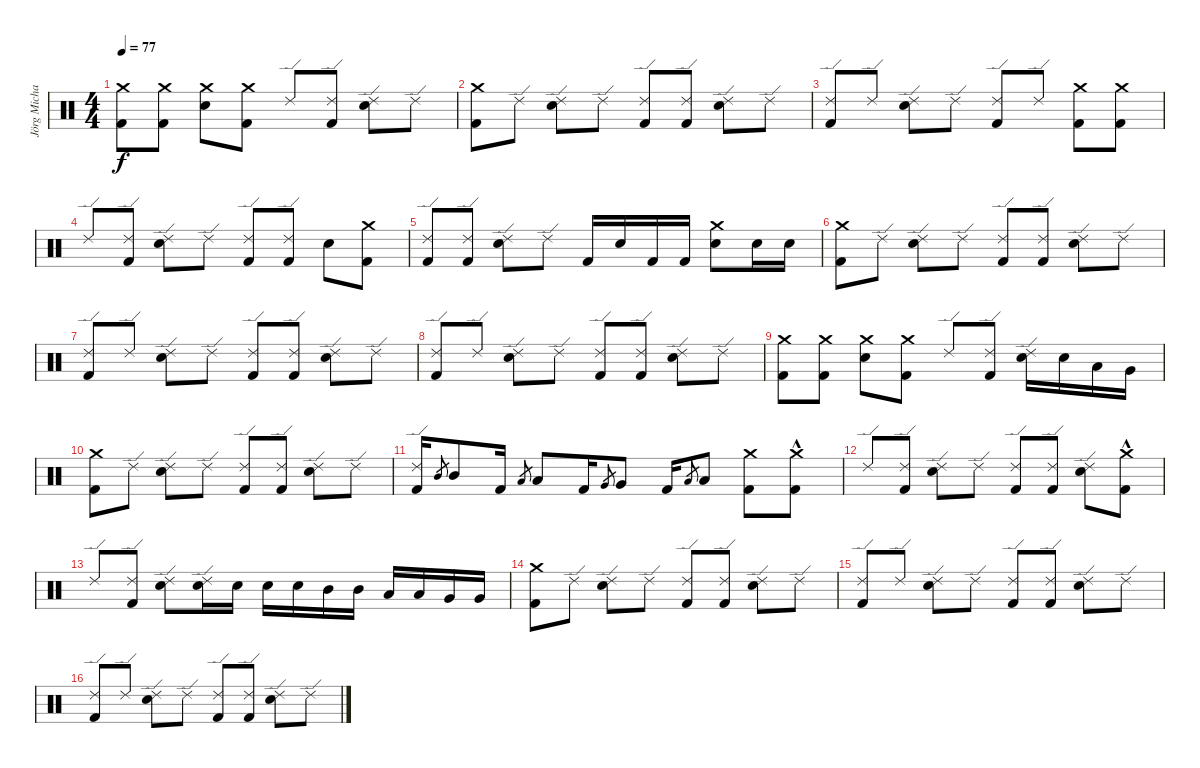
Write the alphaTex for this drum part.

\track ("Jörg Michael" "Jörg Micha") {instrument percussion}
\staff {score}
\articulation defaults
\ts (4 4)
\tempo 77
\clef neutral
\ks c
("Crash medium (hit)" "Kick (hit) 2").8{dy f} ("Crash medium (hit)" "Kick (hit) 2").8 ("Crash medium (hit)" "Electric Snare (hit)").8 ("Crash medium (hit)" "Kick (hit) 2").8 "Ride (edge) 2".8 ("Ride (edge) 2" "Kick (hit) 2").8 ("Ride (edge) 2" "Electric Snare (hit)").8 "Ride (edge) 2".8 |
("Crash medium (hit)" "Kick (hit) 2").8 "Ride (edge) 2".8 ("Ride (edge) 2" "Electric Snare (hit)").8 "Ride (edge) 2".8 ("Ride (edge) 2" "Kick (hit) 2").8 ("Ride (edge) 2" "Kick (hit) 2").8 ("Ride (edge) 2" "Electric Snare (hit)").8 "Ride (edge) 2".8 |
("Ride (edge) 2" "Kick (hit) 2").8 "Ride (edge) 2".8 ("Ride (edge) 2" "Electric Snare (hit)").8 "Ride (edge) 2".8 ("Ride (edge) 2" "Kick (hit) 2").8 "Ride (edge) 2".8 ("Crash medium (hit)" "Kick (hit) 2").8 ("Crash medium (hit)" "Kick (hit) 2").8 |
"Ride (edge) 2".8 ("Ride (edge) 2" "Kick (hit) 2").8 ("Ride (edge) 2" "Electric Snare (hit)").8 "Ride (edge) 2".8 ("Ride (edge) 2" "Kick (hit) 2").8 ("Ride (edge) 2" "Kick (hit) 2").8 "Electric Snare (hit)".8 ("Crash medium (hit)" "Kick (hit) 2").8 |
("Ride (edge) 2" "Kick (hit) 2").8 ("Ride (edge) 2" "Kick (hit) 2").8 ("Ride (edge) 2" "Electric Snare (hit)").8 "Ride (edge) 2".8 "Kick (hit) 2".16 "Electric Snare (hit)".16 "Kick (hit) 2".16 "Kick (hit) 2".16 ("Crash medium (hit)" "Electric Snare (hit)").8 "Electric Snare (hit)".16 "Electric Snare (hit)".16 |
("Crash medium (hit)" "Kick (hit) 2").8 "Ride (edge) 2".8 ("Ride (edge) 2" "Electric Snare (hit)").8 "Ride (edge) 2".8 ("Ride (edge) 2" "Kick (hit) 2").8 ("Ride (edge) 2" "Kick (hit) 2").8 ("Ride (edge) 2" "Electric Snare (hit)").8 "Ride (edge) 2".8 |
("Ride (edge) 2" "Kick (hit) 2").8 "Ride (edge) 2".8 ("Ride (edge) 2" "Electric Snare (hit)").8 "Ride (edge) 2".8 ("Ride (edge) 2" "Kick (hit) 2").8 ("Ride (edge) 2" "Kick (hit) 2").8 ("Ride (edge) 2" "Electric Snare (hit)").8 "Ride (edge) 2".8 |
("Ride (edge) 2" "Kick (hit) 2").8 "Ride (edge) 2".8 ("Ride (edge) 2" "Electric Snare (hit)").8 "Ride (edge) 2".8 ("Ride (edge) 2" "Kick (hit) 2").8 ("Ride (edge) 2" "Kick (hit) 2").8 ("Ride (edge) 2" "Electric Snare (hit)").8 "Ride (edge) 2".8 |
("Crash medium (hit)" "Kick (hit) 2").8 ("Crash medium (hit)" "Kick (hit) 2").8 ("Crash medium (hit)" "Electric Snare (hit)").8 ("Crash medium (hit)" "Kick (hit) 2").8 "Ride (edge) 2".8 ("Ride (edge) 2" "Kick (hit) 2").8 ("Ride (edge) 2" "Electric Snare (hit)").16 "Electric Snare (hit)".16 "Low Tom (hit)".16 "Very Low Tom (hit)".16 |
("Crash medium (hit)" "Kick (hit) 2").8 "Ride (edge) 2".8 ("Ride (edge) 2" "Electric Snare (hit)").8 "Ride (edge) 2".8 ("Ride (edge) 2" "Kick (hit) 2").8 ("Ride (edge) 2" "Kick (hit) 2").8 ("Ride (edge) 2" "Electric Snare (hit)").8 "Ride (edge) 2".8 |
("Ride (edge) 2" "Kick (hit) 2").16 "Mid Tom (hit)".8{gr} "Mid Tom (hit)".8 "Kick (hit) 2".16 "Low Tom (hit)".8{gr} "Low Tom (hit)".8 "Kick (hit) 2".16 "Very Low Tom (hit)".8{gr} "Very Low Tom (hit)".8 "Kick (hit) 2".16 "Low Floor Tom (hit)".8{gr} "Low Floor Tom (hit)".8 ("Crash medium (hit)" "Kick (hit) 2").8 ("Crash medium (hit)"{hac} "Kick (hit) 2").8 |
"Ride (edge) 2".8 ("Ride (edge) 2" "Kick (hit) 2").8 ("Ride (edge) 2" "Electric Snare (hit)").8 "Ride (edge) 2".8 ("Ride (edge) 2" "Kick (hit) 2").8 ("Ride (edge) 2" "Kick (hit) 2").8 ("Ride (edge) 2" "Electric Snare (hit)").8 ("Crash medium (hit)"{hac} "Kick (hit) 2").8 |
"Ride (edge) 2".8 ("Ride (edge) 2" "Kick (hit) 2").8 ("Ride (edge) 2" "Electric Snare (hit)").8 ("Ride (edge) 2" "Electric Snare (hit)").16 "Electric Snare (hit)".16 "Electric Snare (hit)".16 "Electric Snare (hit)".16 "Mid Tom (hit)".16 "Mid Tom (hit)".16 "Low Tom (hit)".16 "Low Tom (hit)".16 "Very Low Tom (hit)".16 "Very Low Tom (hit)".16 |
("Crash medium (hit)" "Kick (hit) 2").8 "Ride (edge) 2".8 ("Ride (edge) 2" "Electric Snare (hit)").8 "Ride (edge) 2".8 ("Ride (edge) 2" "Kick (hit) 2").8 ("Ride (edge) 2" "Kick (hit) 2").8 ("Ride (edge) 2" "Electric Snare (hit)").8 "Ride (edge) 2".8 |
("Ride (edge) 2" "Kick (hit) 2").8 "Ride (edge) 2".8 ("Ride (edge) 2" "Electric Snare (hit)").8 "Ride (edge) 2".8 ("Ride (edge) 2" "Kick (hit) 2").8 ("Ride (edge) 2" "Kick (hit) 2").8 ("Ride (edge) 2" "Electric Snare (hit)").8 "Ride (edge) 2".8 |
("Ride (edge) 2" "Kick (hit) 2").8{volume 0} "Ride (edge) 2".8 ("Ride (edge) 2" "Electric Snare (hit)").8 "Ride (edge) 2".8 ("Ride (edge) 2" "Kick (hit) 2").8 ("Ride (edge) 2" "Kick (hit) 2").8 ("Ride (edge) 2" "Electric Snare (hit)").8 "Ride (edge) 2".8
